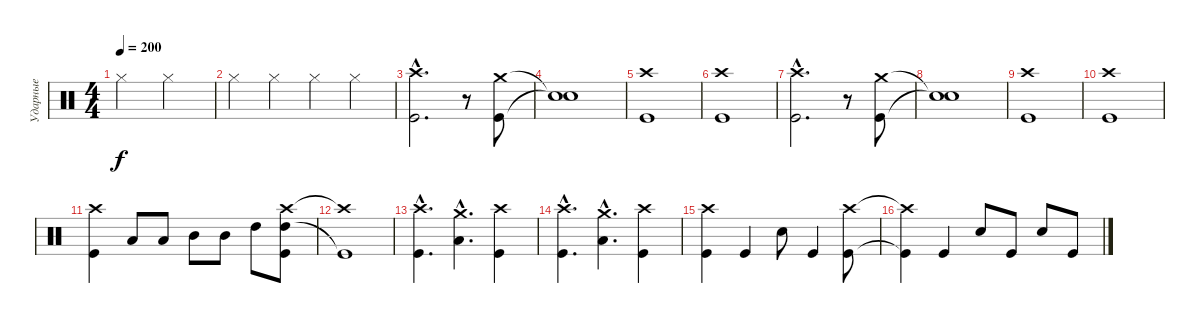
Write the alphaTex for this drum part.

\track ("Ударные" "Ударные") {instrument percussion}
\staff {score}
\articulation defaults
\ts (4 4)
\tempo 200
\clef neutral
\ks c "Hi-Hat (closed)".2{dy f} "Hi-Hat (closed)".2
|
"Hi-Hat (closed)".4 "Hi-Hat (closed)".4 "Hi-Hat (closed)".4 "Hi-Hat (closed)".4 |
("Crash high (hit)"{hac} "Kick (hit)"{hac}).2{d} r.8 ("Crash medium (hit)" "Kick (hit)").8 |
("Snare (hit)"{t} "Snare (hit)"{t}).1 |
("Crash high (hit)" "Kick (hit)").1 |
("Crash high (hit)" "Kick (hit)").1 |
("Crash high (hit)"{hac} "Kick (hit)"{hac}).2{d} r.8 ("Crash medium (hit)" "Kick (hit)").8 |
("Snare (hit)"{t} "Snare (hit)"{t}).1 |
("Crash high (hit)" "Kick (hit)").1 |
("Crash high (hit)" "Kick (hit)").1 |
("Crash high (hit)" "Kick (hit)").4 "Low Tom (hit)".8 "Low Tom (hit)".8 "Mid Tom (hit)".8 "Mid Tom (hit)".8 "High Tom (hit)".8 ("Crash high (hit)" "High Tom (hit)" "Kick (hit)").8 |
("Crash high (hit)"{t} "Kick (hit)"{t}).1 |
("Crash high (hit)"{hac} "Kick (hit)"{hac}).4{d} ("Crash medium (hit)"{hac} "Low Tom (hit)"{hac}).4{d} ("Crash high (hit)" "Kick (hit)").4 |
("Crash high (hit)"{hac} "Kick (hit)"{hac}).4{d} ("Crash medium (hit)"{hac} "Low Tom (hit)"{hac}).4{d} ("Crash high (hit)" "Kick (hit)").4 |
("Crash high (hit)" "Kick (hit)").4 "Kick (hit)".4 "Electric Snare (hit)".8 "Kick (hit)".4 ("Crash high (hit)" "Kick (hit)").8 |
("Crash high (hit)"{t} "Kick (hit)"{t}).4 "Kick (hit)".4 "Electric Snare (hit)".8 "Kick (hit)".8 "Electric Snare (hit)".8 "Kick (hit)".8
